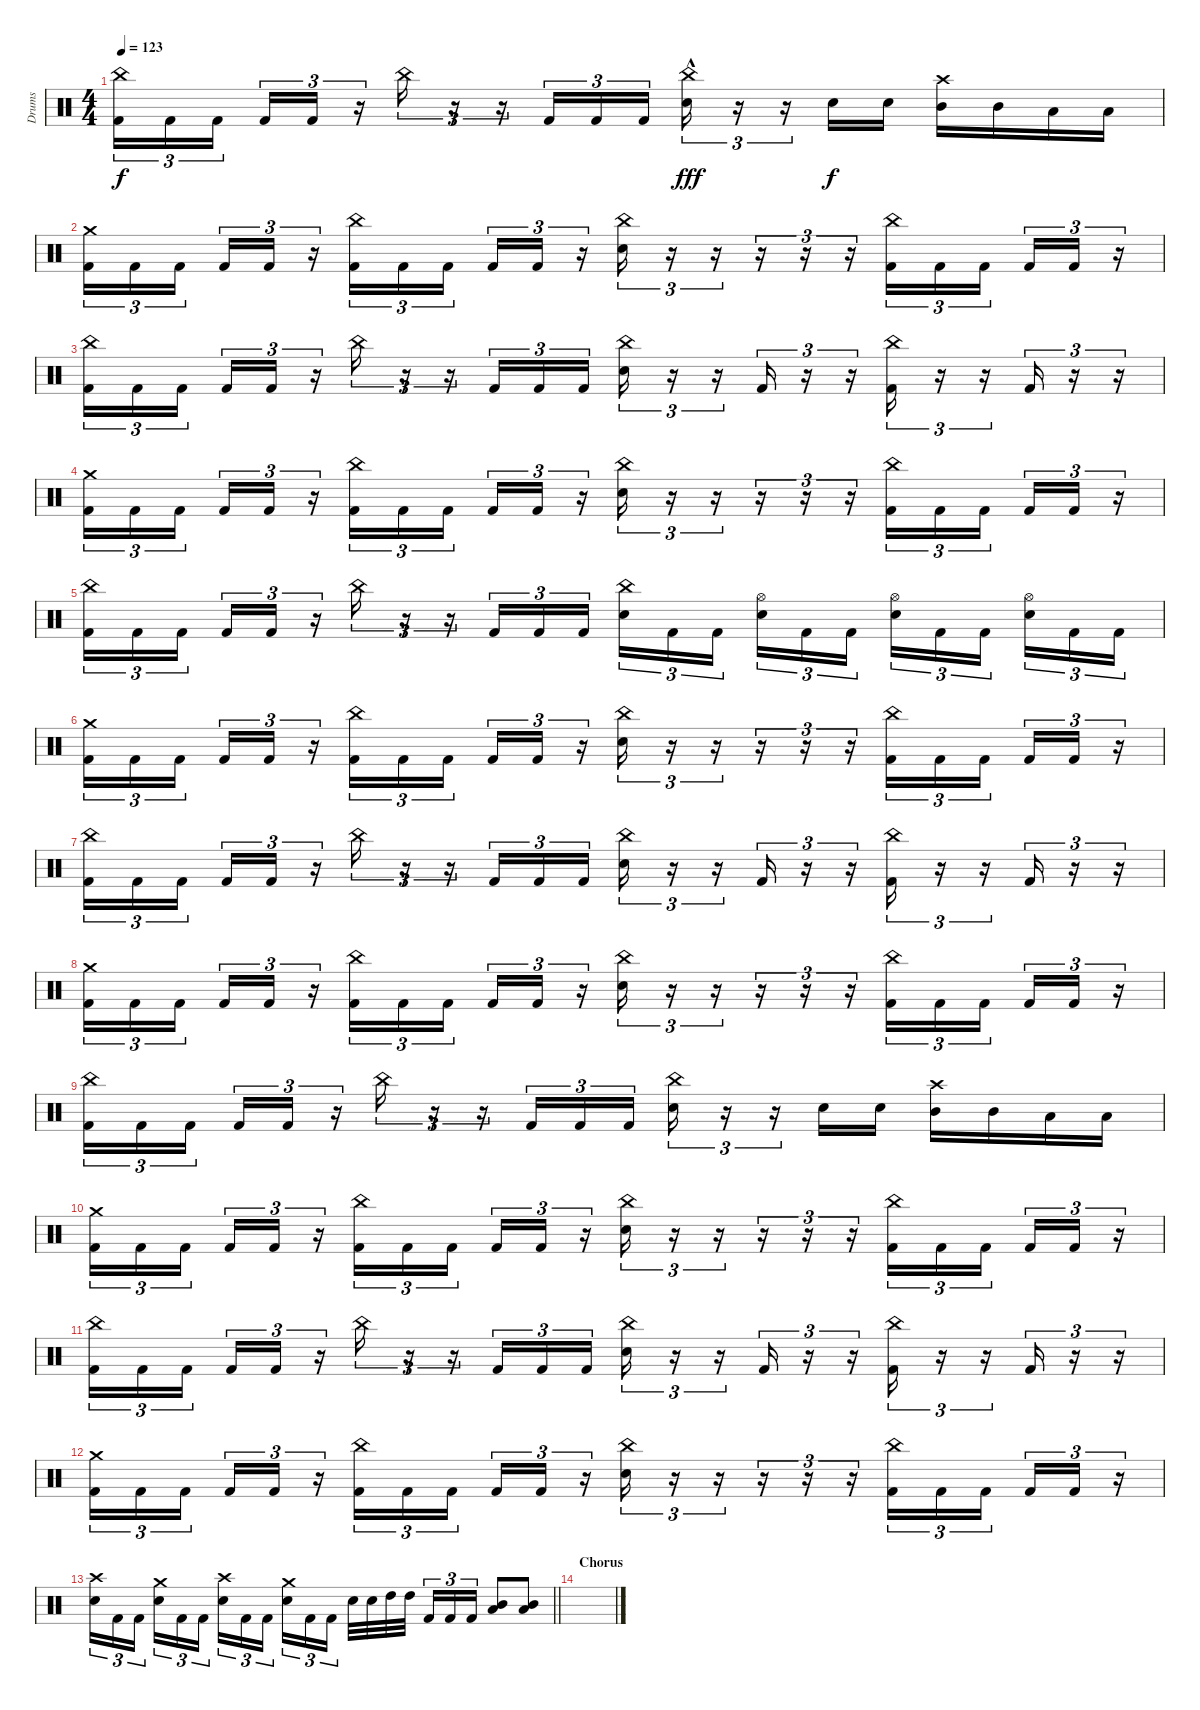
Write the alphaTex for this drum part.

\track ("Drums" "Drums") {instrument percussion}
\staff {score}
\articulation defaults
\ts (4 4)
\tempo 123
\clef neutral
\ks c
("China (hit)" "Kick (hit) 2").16{tu (3 2) dy f} "Kick (hit) 2".16{tu (3 2)} "Kick (hit) 2".16{tu (3 2) beam splitsecondary} "Kick (hit) 2".16{tu (3 2)} "Kick (hit) 2".16{tu (3 2)} r.16{tu (3 2)} "China (hit)".16{tu (3 2)} r.16{tu (3 2)} r.16{tu (3 2)} "Kick (hit) 2".16{tu (3 2)} "Kick (hit) 2".16{tu (3 2)} "Kick (hit) 2".16{tu (3 2)} ("China (hit)" "Snare (hit) 2"{hac}).16{tu (3 2) dy fff} r.16{tu (3 2)} r.16{tu (3 2)} "Snare (hit) 2".16{dy f} "Snare (hit) 2".16 ("Crash high (hit)" "Mid Tom (hit)").16 "Mid Tom (hit)".16 "Low Tom (hit)".16 "Low Tom (hit)".16 |
("Crash medium (hit)" "Kick (hit) 2").16{tu (3 2)} "Kick (hit) 2".16{tu (3 2)} "Kick (hit) 2".16{tu (3 2) beam splitsecondary} "Kick (hit) 2".16{tu (3 2)} "Kick (hit) 2".16{tu (3 2)} r.16{tu (3 2)} ("China (hit)" "Kick (hit) 2").16{tu (3 2)} "Kick (hit) 2".16{tu (3 2)} "Kick (hit) 2".16{tu (3 2) beam splitsecondary} "Kick (hit) 2".16{tu (3 2)} "Kick (hit) 2".16{tu (3 2)} r.16{tu (3 2)} ("China (hit)" "Snare (hit) 2").16{tu (3 2)} r.16{tu (3 2)} r.16{tu (3 2)} r.16{tu (3 2)} r.16{tu (3 2)} r.16{tu (3 2)} ("China (hit)" "Kick (hit) 2").16{tu (3 2)} "Kick (hit) 2".16{tu (3 2)} "Kick (hit) 2".16{tu (3 2) beam splitsecondary} "Kick (hit) 2".16{tu (3 2)} "Kick (hit) 2".16{tu (3 2)} r.16{tu (3 2)} |
("China (hit)" "Kick (hit) 2").16{tu (3 2)} "Kick (hit) 2".16{tu (3 2)} "Kick (hit) 2".16{tu (3 2) beam splitsecondary} "Kick (hit) 2".16{tu (3 2)} "Kick (hit) 2".16{tu (3 2)} r.16{tu (3 2)} "China (hit)".16{tu (3 2)} r.16{tu (3 2)} r.16{tu (3 2)} "Kick (hit) 2".16{tu (3 2)} "Kick (hit) 2".16{tu (3 2)} "Kick (hit) 2".16{tu (3 2)} ("China (hit)" "Snare (hit) 2").16{tu (3 2)} r.16{tu (3 2)} r.16{tu (3 2)} "Kick (hit) 2".16{tu (3 2)} r.16{tu (3 2)} r.16{tu (3 2)} ("China (hit)" "Kick (hit) 2").16{tu (3 2)} r.16{tu (3 2)} r.16{tu (3 2)} "Kick (hit) 2".16{tu (3 2)} r.16{tu (3 2)} r.16{tu (3 2)} |
("Crash medium (hit)" "Kick (hit) 2").16{tu (3 2)} "Kick (hit) 2".16{tu (3 2)} "Kick (hit) 2".16{tu (3 2) beam splitsecondary} "Kick (hit) 2".16{tu (3 2)} "Kick (hit) 2".16{tu (3 2)} r.16{tu (3 2)} ("China (hit)" "Kick (hit) 2").16{tu (3 2)} "Kick (hit) 2".16{tu (3 2)} "Kick (hit) 2".16{tu (3 2) beam splitsecondary} "Kick (hit) 2".16{tu (3 2)} "Kick (hit) 2".16{tu (3 2)} r.16{tu (3 2)} ("China (hit)" "Snare (hit) 2").16{tu (3 2)} r.16{tu (3 2)} r.16{tu (3 2)} r.16{tu (3 2)} r.16{tu (3 2)} r.16{tu (3 2)} ("China (hit)" "Kick (hit) 2").16{tu (3 2)} "Kick (hit) 2".16{tu (3 2)} "Kick (hit) 2".16{tu (3 2) beam splitsecondary} "Kick (hit) 2".16{tu (3 2)} "Kick (hit) 2".16{tu (3 2)} r.16{tu (3 2)} |
("China (hit)" "Kick (hit) 2").16{tu (3 2)} "Kick (hit) 2".16{tu (3 2)} "Kick (hit) 2".16{tu (3 2) beam splitsecondary} "Kick (hit) 2".16{tu (3 2)} "Kick (hit) 2".16{tu (3 2)} r.16{tu (3 2)} "China (hit)".16{tu (3 2)} r.16{tu (3 2)} r.16{tu (3 2)} "Kick (hit) 2".16{tu (3 2)} "Kick (hit) 2".16{tu (3 2)} "Kick (hit) 2".16{tu (3 2)} ("China (hit)" "Snare (hit) 2").16{tu (3 2)} "Kick (hit) 2".16{tu (3 2)} "Kick (hit) 2".16{tu (3 2) beam splitsecondary} ("Hi-Hat (open)" "Snare (hit) 2").16{tu (3 2)} "Kick (hit) 2".16{tu (3 2)} "Kick (hit) 2".16{tu (3 2)} ("Hi-Hat (open)" "Snare (hit) 2").16{tu (3 2)} "Kick (hit) 2".16{tu (3 2)} "Kick (hit) 2".16{tu (3 2) beam splitsecondary} ("Hi-Hat (open)" "Snare (hit) 2").16{tu (3 2)} "Kick (hit) 2".16{tu (3 2)} "Kick (hit) 2".16{tu (3 2)} |
("Crash medium (hit)" "Kick (hit) 2").16{tu (3 2)} "Kick (hit) 2".16{tu (3 2)} "Kick (hit) 2".16{tu (3 2) beam splitsecondary} "Kick (hit) 2".16{tu (3 2)} "Kick (hit) 2".16{tu (3 2)} r.16{tu (3 2)} ("China (hit)" "Kick (hit) 2").16{tu (3 2)} "Kick (hit) 2".16{tu (3 2)} "Kick (hit) 2".16{tu (3 2) beam splitsecondary} "Kick (hit) 2".16{tu (3 2)} "Kick (hit) 2".16{tu (3 2)} r.16{tu (3 2)} ("China (hit)" "Snare (hit) 2").16{tu (3 2)} r.16{tu (3 2)} r.16{tu (3 2)} r.16{tu (3 2)} r.16{tu (3 2)} r.16{tu (3 2)} ("China (hit)" "Kick (hit) 2").16{tu (3 2)} "Kick (hit) 2".16{tu (3 2)} "Kick (hit) 2".16{tu (3 2) beam splitsecondary} "Kick (hit) 2".16{tu (3 2)} "Kick (hit) 2".16{tu (3 2)} r.16{tu (3 2)} |
("China (hit)" "Kick (hit) 2").16{tu (3 2)} "Kick (hit) 2".16{tu (3 2)} "Kick (hit) 2".16{tu (3 2) beam splitsecondary} "Kick (hit) 2".16{tu (3 2)} "Kick (hit) 2".16{tu (3 2)} r.16{tu (3 2)} "China (hit)".16{tu (3 2)} r.16{tu (3 2)} r.16{tu (3 2)} "Kick (hit) 2".16{tu (3 2)} "Kick (hit) 2".16{tu (3 2)} "Kick (hit) 2".16{tu (3 2)} ("China (hit)" "Snare (hit) 2").16{tu (3 2)} r.16{tu (3 2)} r.16{tu (3 2)} "Kick (hit) 2".16{tu (3 2)} r.16{tu (3 2)} r.16{tu (3 2)} ("China (hit)" "Kick (hit) 2").16{tu (3 2)} r.16{tu (3 2)} r.16{tu (3 2)} "Kick (hit) 2".16{tu (3 2)} r.16{tu (3 2)} r.16{tu (3 2)} |
("Crash medium (hit)" "Kick (hit) 2").16{tu (3 2)} "Kick (hit) 2".16{tu (3 2)} "Kick (hit) 2".16{tu (3 2) beam splitsecondary} "Kick (hit) 2".16{tu (3 2)} "Kick (hit) 2".16{tu (3 2)} r.16{tu (3 2)} ("China (hit)" "Kick (hit) 2").16{tu (3 2)} "Kick (hit) 2".16{tu (3 2)} "Kick (hit) 2".16{tu (3 2) beam splitsecondary} "Kick (hit) 2".16{tu (3 2)} "Kick (hit) 2".16{tu (3 2)} r.16{tu (3 2)} ("China (hit)" "Snare (hit) 2").16{tu (3 2)} r.16{tu (3 2)} r.16{tu (3 2)} r.16{tu (3 2)} r.16{tu (3 2)} r.16{tu (3 2)} ("China (hit)" "Kick (hit) 2").16{tu (3 2)} "Kick (hit) 2".16{tu (3 2)} "Kick (hit) 2".16{tu (3 2) beam splitsecondary} "Kick (hit) 2".16{tu (3 2)} "Kick (hit) 2".16{tu (3 2)} r.16{tu (3 2)} |
("China (hit)" "Kick (hit) 2").16{tu (3 2)} "Kick (hit) 2".16{tu (3 2)} "Kick (hit) 2".16{tu (3 2) beam splitsecondary} "Kick (hit) 2".16{tu (3 2)} "Kick (hit) 2".16{tu (3 2)} r.16{tu (3 2)} "China (hit)".16{tu (3 2)} r.16{tu (3 2)} r.16{tu (3 2)} "Kick (hit) 2".16{tu (3 2)} "Kick (hit) 2".16{tu (3 2)} "Kick (hit) 2".16{tu (3 2)} ("China (hit)" "Snare (hit) 2").16{tu (3 2)} r.16{tu (3 2)} r.16{tu (3 2)} "Snare (hit) 2".16 "Snare (hit) 2".16 ("Crash high (hit)" "Mid Tom (hit)").16 "Mid Tom (hit)".16 "Low Tom (hit)".16 "Low Tom (hit)".16 |
("Crash medium (hit)" "Kick (hit) 2").16{tu (3 2)} "Kick (hit) 2".16{tu (3 2)} "Kick (hit) 2".16{tu (3 2) beam splitsecondary} "Kick (hit) 2".16{tu (3 2)} "Kick (hit) 2".16{tu (3 2)} r.16{tu (3 2)} ("China (hit)" "Kick (hit) 2").16{tu (3 2)} "Kick (hit) 2".16{tu (3 2)} "Kick (hit) 2".16{tu (3 2) beam splitsecondary} "Kick (hit) 2".16{tu (3 2)} "Kick (hit) 2".16{tu (3 2)} r.16{tu (3 2)} ("China (hit)" "Snare (hit) 2").16{tu (3 2)} r.16{tu (3 2)} r.16{tu (3 2)} r.16{tu (3 2)} r.16{tu (3 2)} r.16{tu (3 2)} ("China (hit)" "Kick (hit) 2").16{tu (3 2)} "Kick (hit) 2".16{tu (3 2)} "Kick (hit) 2".16{tu (3 2) beam splitsecondary} "Kick (hit) 2".16{tu (3 2)} "Kick (hit) 2".16{tu (3 2)} r.16{tu (3 2)} |
("China (hit)" "Kick (hit) 2").16{tu (3 2)} "Kick (hit) 2".16{tu (3 2)} "Kick (hit) 2".16{tu (3 2) beam splitsecondary} "Kick (hit) 2".16{tu (3 2)} "Kick (hit) 2".16{tu (3 2)} r.16{tu (3 2)} "China (hit)".16{tu (3 2)} r.16{tu (3 2)} r.16{tu (3 2)} "Kick (hit) 2".16{tu (3 2)} "Kick (hit) 2".16{tu (3 2)} "Kick (hit) 2".16{tu (3 2)} ("China (hit)" "Snare (hit) 2").16{tu (3 2)} r.16{tu (3 2)} r.16{tu (3 2)} "Kick (hit) 2".16{tu (3 2)} r.16{tu (3 2)} r.16{tu (3 2)} ("China (hit)" "Kick (hit) 2").16{tu (3 2)} r.16{tu (3 2)} r.16{tu (3 2)} "Kick (hit) 2".16{tu (3 2)} r.16{tu (3 2)} r.16{tu (3 2)} |
("Crash medium (hit)" "Kick (hit) 2").16{tu (3 2)} "Kick (hit) 2".16{tu (3 2)} "Kick (hit) 2".16{tu (3 2) beam splitsecondary} "Kick (hit) 2".16{tu (3 2)} "Kick (hit) 2".16{tu (3 2)} r.16{tu (3 2)} ("China (hit)" "Kick (hit) 2").16{tu (3 2)} "Kick (hit) 2".16{tu (3 2)} "Kick (hit) 2".16{tu (3 2) beam splitsecondary} "Kick (hit) 2".16{tu (3 2)} "Kick (hit) 2".16{tu (3 2)} r.16{tu (3 2)} ("China (hit)" "Snare (hit) 2").16{tu (3 2)} r.16{tu (3 2)} r.16{tu (3 2)} r.16{tu (3 2)} r.16{tu (3 2)} r.16{tu (3 2)} ("China (hit)" "Kick (hit) 2").16{tu (3 2)} "Kick (hit) 2".16{tu (3 2)} "Kick (hit) 2".16{tu (3 2) beam splitsecondary} "Kick (hit) 2".16{tu (3 2)} "Kick (hit) 2".16{tu (3 2)} r.16{tu (3 2)} |
\barLineRight lightlight
("Crash high (hit)" "Snare (hit) 2").16{tu (3 2)} "Kick (hit) 2".16{tu (3 2)} "Kick (hit) 2".16{tu (3 2) beam splitsecondary} ("Crash medium (hit)" "Snare (hit) 2").16{tu (3 2)} "Kick (hit) 2".16{tu (3 2)} "Kick (hit) 2".16{tu (3 2)} ("Crash high (hit)" "Snare (hit) 2").16{tu (3 2)} "Kick (hit) 2".16{tu (3 2)} "Kick (hit) 2".16{tu (3 2) beam splitsecondary} ("Crash medium (hit)" "Snare (hit) 2").16{tu (3 2)} "Kick (hit) 2".16{tu (3 2)} "Kick (hit) 2".16{tu (3 2)} "Snare (hit) 2".32 "Snare (hit) 2".32 "High Tom (hit)".32 "High Tom (hit)".32{beam splitsecondary} "Kick (hit) 2".16{tu (3 2)} "Kick (hit) 2".16{tu (3 2)} "Kick (hit) 2".16{tu (3 2)} ("Mid Tom (hit)" "Low Tom (hit)").8 ("Mid Tom (hit)" "Low Tom (hit)").8 |
\section ("" "Chorus")
